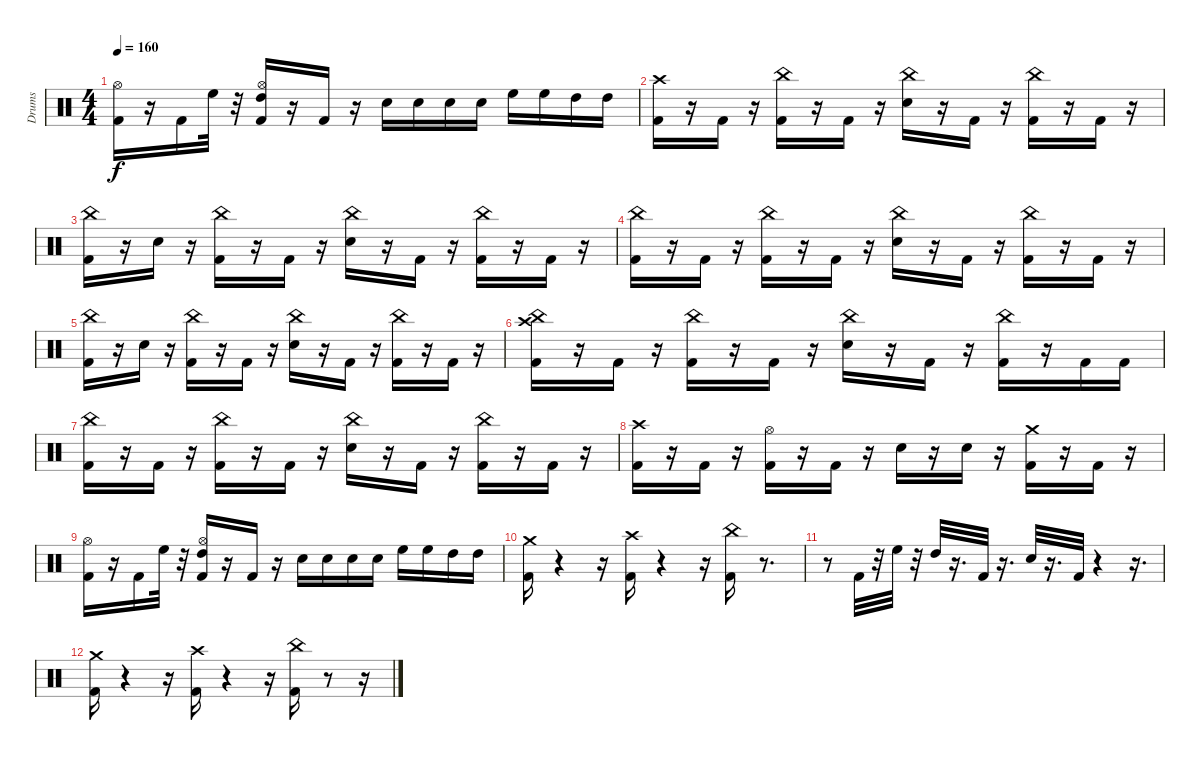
\track ("Drums" "Drums") {instrument percussion}
\staff {score}
\articulation defaults
\ts (4 4)
\tempo 160
\clef neutral
\ks c
("Kick (hit) 2" "Hi-Hat (open)").16{dy f} r.16 "Kick (hit) 2".16 "High Floor Tom (hit)".32 r.32 ("Kick (hit) 2" "Hi-Hat (open)" "High Tom (hit)").16 r.16 "Kick (hit) 2".16 r.16 "Snare (hit) 2".16 "Snare (hit) 2".16 "Snare (hit) 2".16 "Snare (hit) 2".16 "High Floor Tom (hit)".16 "High Floor Tom (hit)".16 "High Tom (hit)".16 "High Tom (hit)".16 |
("Kick (hit) 2" "Crash high (hit)").16 r.16 "Kick (hit) 2".16 r.16 ("Kick (hit) 2" "China (hit)").16 r.16 "Kick (hit) 2".16 r.16 ("Snare (hit) 2" "China (hit)").16 r.16 "Kick (hit) 2".16 r.16 ("Kick (hit) 2" "China (hit)").16 r.16 "Kick (hit) 2".16 r.16 |
("Kick (hit) 2" "China (hit)").16 r.16 "Snare (hit) 2".16 r.16 ("Kick (hit) 2" "China (hit)").16 r.16 "Kick (hit) 2".16 r.16 ("Snare (hit) 2" "China (hit)").16 r.16 "Kick (hit) 2".16 r.16 ("Kick (hit) 2" "China (hit)").16 r.16 "Kick (hit) 2".16 r.16 |
("Kick (hit) 2" "China (hit)").16 r.16 "Kick (hit) 2".16 r.16 ("Kick (hit) 2" "China (hit)").16 r.16 "Kick (hit) 2".16 r.16 ("Snare (hit) 2" "China (hit)").16 r.16 "Kick (hit) 2".16 r.16 ("Kick (hit) 2" "China (hit)").16 r.16 "Kick (hit) 2".16 r.16 |
("Kick (hit) 2" "China (hit)").16 r.16 "Snare (hit) 2".16 r.16 ("Kick (hit) 2" "China (hit)").16 r.16 "Kick (hit) 2".16 r.16 ("Snare (hit) 2" "China (hit)").16 r.16 "Kick (hit) 2".16 r.16 ("Kick (hit) 2" "China (hit)").16 r.16 "Kick (hit) 2".16 r.16 |
("Kick (hit) 2" "Crash high (hit)" "China (hit)").16 r.16 "Kick (hit) 2".16 r.16 ("Kick (hit) 2" "China (hit)").16 r.16 "Kick (hit) 2".16 r.16 ("Snare (hit) 2" "China (hit)").16 r.16 "Kick (hit) 2".16 r.16 ("Kick (hit) 2" "China (hit)").16 r.16 "Kick (hit) 2".16 "Kick (hit) 2".16 |
("Kick (hit) 2" "China (hit)").16 r.16 "Kick (hit) 2".16 r.16 ("Kick (hit) 2" "China (hit)").16 r.16 "Kick (hit) 2".16 r.16 ("Snare (hit) 2" "China (hit)").16 r.16 "Kick (hit) 2".16 r.16 ("Kick (hit) 2" "China (hit)").16 r.16 "Kick (hit) 2".16 r.16 |
("Kick (hit) 2" "Crash high (hit)").16 r.16 "Kick (hit) 2".16 r.16 ("Kick (hit) 2" "Hi-Hat (open)").16 r.16 "Kick (hit) 2".16 r.16 "Snare (hit) 2".16 r.16 "Snare (hit) 2".16 r.16 ("Kick (hit) 2" "Crash medium (hit)").16 r.16 "Kick (hit) 2".16 r.16 |
("Kick (hit) 2" "Hi-Hat (open)").16 r.16 "Kick (hit) 2".16 "High Floor Tom (hit)".32 r.32 ("Kick (hit) 2" "Hi-Hat (open)" "High Tom (hit)").16 r.16 "Kick (hit) 2".16 r.16 "Snare (hit) 2".16 "Snare (hit) 2".16 "Snare (hit) 2".16 "Snare (hit) 2".16 "High Floor Tom (hit)".16 "High Floor Tom (hit)".16 "High Tom (hit)".16 "High Tom (hit)".16 |
("Kick (hit) 2" "Crash medium (hit)").16 r.4 r.16 ("Kick (hit) 2" "Crash high (hit)").16 r.4 r.16 ("Kick (hit) 2" "China (hit)").16 r.8{d} |
r.8 "Kick (hit) 2".32 r.32 "High Floor Tom (hit)".32 r.32 "High Tom (hit)".32 r.16{d} "Kick (hit) 2".32 r.16{d} "Snare (hit) 2".32 r.16{d} "Kick (hit) 2".32 r.4 r.16{d} |
("Kick (hit) 2" "Crash medium (hit)").16 r.4 r.16 ("Kick (hit) 2" "Crash high (hit)").16 r.4 r.16 ("Kick (hit) 2" "China (hit)").16 r.8 r.16
